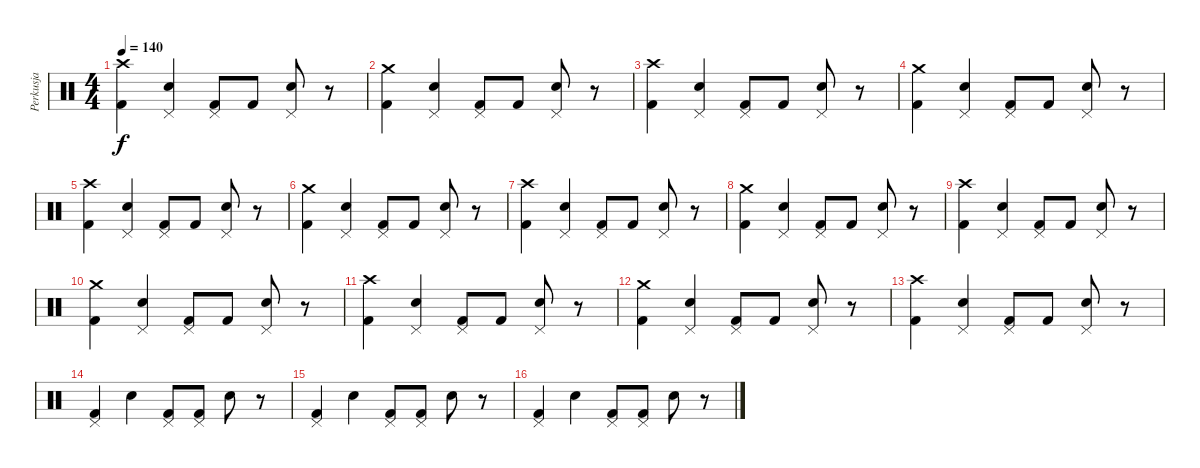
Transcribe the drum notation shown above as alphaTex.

\track ("Perkusja" "Perkusja") {instrument percussion}
\staff {score}
\articulation defaults
\ts (4 4)
\tempo 140
\clef neutral
\ks c
("Crash high (hit)" "Kick (hit) 2").4{dy f} ("Pedal Hi-Hat (hit)" "Snare (hit) 2").4 ("Pedal Hi-Hat (hit)" "Kick (hit) 2").8 "Kick (hit) 2".8 ("Pedal Hi-Hat (hit)" "Snare (hit) 2").8 r.8 |
("Crash medium (hit)" "Kick (hit) 2").4 ("Pedal Hi-Hat (hit)" "Snare (hit) 2").4 ("Pedal Hi-Hat (hit)" "Kick (hit) 2").8 "Kick (hit) 2".8 ("Pedal Hi-Hat (hit)" "Snare (hit) 2").8 r.8 |
("Crash high (hit)" "Kick (hit) 2").4 ("Pedal Hi-Hat (hit)" "Snare (hit) 2").4 ("Pedal Hi-Hat (hit)" "Kick (hit) 2").8 "Kick (hit) 2".8 ("Pedal Hi-Hat (hit)" "Snare (hit) 2").8 r.8 |
("Crash medium (hit)" "Kick (hit) 2").4 ("Pedal Hi-Hat (hit)" "Snare (hit) 2").4 ("Pedal Hi-Hat (hit)" "Kick (hit) 2").8 "Kick (hit) 2".8 ("Pedal Hi-Hat (hit)" "Snare (hit) 2").8 r.8 |
("Crash high (hit)" "Kick (hit) 2").4 ("Pedal Hi-Hat (hit)" "Snare (hit) 2").4 ("Pedal Hi-Hat (hit)" "Kick (hit) 2").8 "Kick (hit) 2".8 ("Pedal Hi-Hat (hit)" "Snare (hit) 2").8 r.8 |
("Crash medium (hit)" "Kick (hit) 2").4 ("Pedal Hi-Hat (hit)" "Snare (hit) 2").4 ("Pedal Hi-Hat (hit)" "Kick (hit) 2").8 "Kick (hit) 2".8 ("Pedal Hi-Hat (hit)" "Snare (hit) 2").8 r.8 |
("Crash high (hit)" "Kick (hit) 2").4 ("Pedal Hi-Hat (hit)" "Snare (hit) 2").4 ("Pedal Hi-Hat (hit)" "Kick (hit) 2").8 "Kick (hit) 2".8 ("Pedal Hi-Hat (hit)" "Snare (hit) 2").8 r.8 |
("Crash medium (hit)" "Kick (hit) 2").4 ("Pedal Hi-Hat (hit)" "Snare (hit) 2").4 ("Pedal Hi-Hat (hit)" "Kick (hit) 2").8 "Kick (hit) 2".8 ("Pedal Hi-Hat (hit)" "Snare (hit) 2").8 r.8 |
("Crash high (hit)" "Kick (hit) 2").4 ("Pedal Hi-Hat (hit)" "Snare (hit) 2").4 ("Pedal Hi-Hat (hit)" "Kick (hit) 2").8 "Kick (hit) 2".8 ("Pedal Hi-Hat (hit)" "Snare (hit) 2").8 r.8 |
("Crash medium (hit)" "Kick (hit) 2").4 ("Pedal Hi-Hat (hit)" "Snare (hit) 2").4 ("Pedal Hi-Hat (hit)" "Kick (hit) 2").8 "Kick (hit) 2".8 ("Pedal Hi-Hat (hit)" "Snare (hit) 2").8 r.8 |
("Crash high (hit)" "Kick (hit) 2").4 ("Pedal Hi-Hat (hit)" "Snare (hit) 2").4 ("Pedal Hi-Hat (hit)" "Kick (hit) 2").8 "Kick (hit) 2".8 ("Pedal Hi-Hat (hit)" "Snare (hit) 2").8 r.8 |
("Crash medium (hit)" "Kick (hit) 2").4 ("Pedal Hi-Hat (hit)" "Snare (hit) 2").4 ("Pedal Hi-Hat (hit)" "Kick (hit) 2").8 "Kick (hit) 2".8 ("Pedal Hi-Hat (hit)" "Snare (hit) 2").8 r.8 |
("Crash high (hit)" "Kick (hit) 2").4 ("Pedal Hi-Hat (hit)" "Snare (hit) 2").4 ("Pedal Hi-Hat (hit)" "Kick (hit) 2").8 "Kick (hit) 2".8 ("Pedal Hi-Hat (hit)" "Snare (hit) 2").8 r.8 |
("Pedal Hi-Hat (hit)" "Kick (hit) 2").4 "Snare (hit) 2".4 ("Pedal Hi-Hat (hit)" "Kick (hit) 2").8 ("Pedal Hi-Hat (hit)" "Kick (hit) 2").8 "Snare (hit) 2".8 r.8 |
("Pedal Hi-Hat (hit)" "Kick (hit) 2").4 "Snare (hit) 2".4 ("Pedal Hi-Hat (hit)" "Kick (hit) 2").8 ("Pedal Hi-Hat (hit)" "Kick (hit) 2").8 "Snare (hit) 2".8 r.8 |
("Pedal Hi-Hat (hit)" "Kick (hit) 2").4 "Snare (hit) 2".4 ("Pedal Hi-Hat (hit)" "Kick (hit) 2").8 ("Pedal Hi-Hat (hit)" "Kick (hit) 2").8 "Snare (hit) 2".8 r.8
